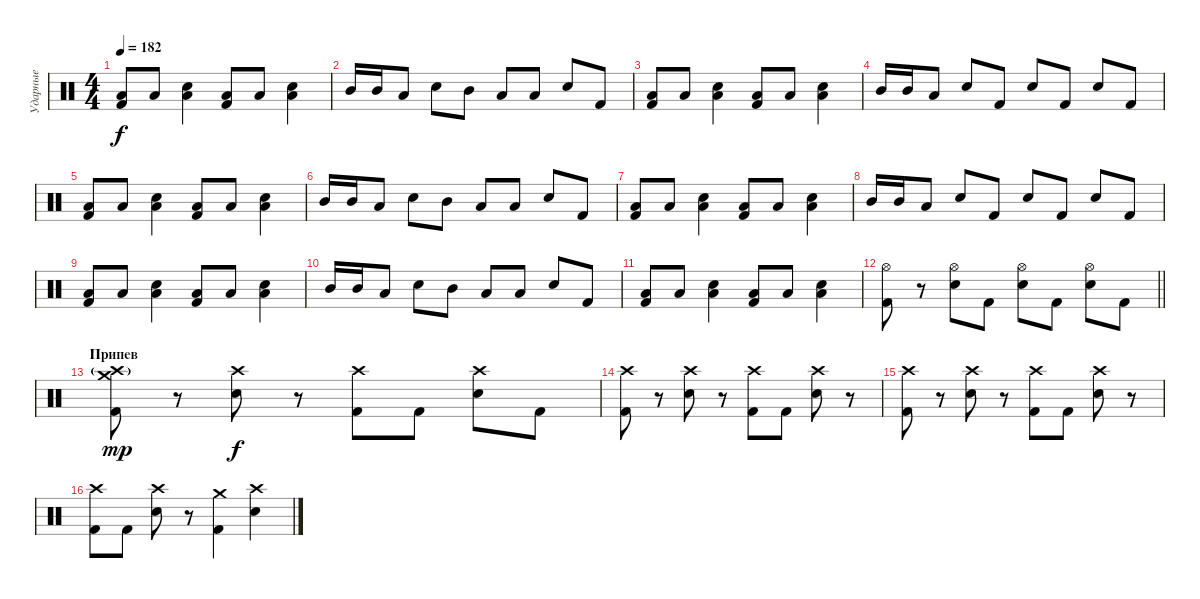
\track ("Ударные" "Ударные") {instrument percussion}
\staff {score}
\articulation defaults
\ts (4 4)
\tempo 182
\clef neutral
\ks c
("Low Floor Tom (hit)" "Kick (hit) 2").8{dy f} "Low Tom (hit)".8 ("Low Floor Tom (hit)" "Snare (hit) 2").4 ("Low Floor Tom (hit)" "Kick (hit) 2").8 "Low Tom (hit)".8 ("Low Floor Tom (hit)" "Snare (hit) 2").4 |
"Mid Tom (hit)".16 "Mid Tom (hit)".16 "Low Tom (hit)".8 "Snare (hit) 2".8 "Mid Tom (hit)".8 "Low Tom (hit)".8 "Low Tom (hit)".8 "Snare (hit) 2".8 "Kick (hit) 2".8 |
("Low Floor Tom (hit)" "Kick (hit) 2").8 "Low Tom (hit)".8 ("Low Floor Tom (hit)" "Snare (hit) 2").4 ("Low Floor Tom (hit)" "Kick (hit) 2").8 "Low Tom (hit)".8 ("Low Floor Tom (hit)" "Snare (hit) 2").4 |
"Mid Tom (hit)".16 "Mid Tom (hit)".16 "Low Tom (hit)".8 "Snare (hit) 2".8 "Kick (hit) 2".8 "Snare (hit) 2".8 "Kick (hit) 2".8 "Snare (hit) 2".8 "Kick (hit) 2".8 |
("Low Floor Tom (hit)" "Kick (hit) 2").8 "Low Tom (hit)".8 ("Low Floor Tom (hit)" "Snare (hit) 2").4 ("Low Floor Tom (hit)" "Kick (hit) 2").8 "Low Tom (hit)".8 ("Low Floor Tom (hit)" "Snare (hit) 2").4 |
"Mid Tom (hit)".16 "Mid Tom (hit)".16 "Low Tom (hit)".8 "Snare (hit) 2".8 "Mid Tom (hit)".8 "Low Tom (hit)".8 "Low Tom (hit)".8 "Snare (hit) 2".8 "Kick (hit) 2".8 |
("Low Floor Tom (hit)" "Kick (hit) 2").8 "Low Tom (hit)".8 ("Low Floor Tom (hit)" "Snare (hit) 2").4 ("Low Floor Tom (hit)" "Kick (hit) 2").8 "Low Tom (hit)".8 ("Low Floor Tom (hit)" "Snare (hit) 2").4 |
"Mid Tom (hit)".16 "Mid Tom (hit)".16 "Low Tom (hit)".8 "Snare (hit) 2".8 "Kick (hit) 2".8 "Snare (hit) 2".8 "Kick (hit) 2".8 "Snare (hit) 2".8 "Kick (hit) 2".8 |
("Low Floor Tom (hit)" "Kick (hit) 2").8 "Low Tom (hit)".8 ("Low Floor Tom (hit)" "Snare (hit) 2").4 ("Low Floor Tom (hit)" "Kick (hit) 2").8 "Low Tom (hit)".8 ("Low Floor Tom (hit)" "Snare (hit) 2").4 |
"Mid Tom (hit)".16 "Mid Tom (hit)".16 "Low Tom (hit)".8 "Snare (hit) 2".8 "Mid Tom (hit)".8 "Low Tom (hit)".8 "Low Tom (hit)".8 "Snare (hit) 2".8 "Kick (hit) 2".8 |
("Low Floor Tom (hit)" "Kick (hit) 2").8 "Low Tom (hit)".8 ("Low Floor Tom (hit)" "Snare (hit) 2").4 ("Low Floor Tom (hit)" "Kick (hit) 2").8 "Low Tom (hit)".8 ("Low Floor Tom (hit)" "Snare (hit) 2").4 |
\barLineRight lightlight
("Hi-Hat (open)" "Kick (hit) 2").8 r.8 ("Hi-Hat (open)" "Snare (hit) 2").8 "Kick (hit) 2".8 ("Hi-Hat (open)" "Snare (hit) 2").8 "Kick (hit) 2".8 ("Hi-Hat (open)" "Snare (hit) 2").8 "Kick (hit) 2".8 |
\section ("" "Припев")
("Crash medium (hit)" "Crash high (hit)"{g} "Kick (hit) 2").8{dy mp} r.8 ("Crash high (hit)" "Snare (hit) 2").8{dy f} r.8 ("Crash high (hit)" "Kick (hit) 2").8 "Kick (hit) 2".8 ("Crash high (hit)" "Snare (hit) 2").8 "Kick (hit) 2".8 |
("Crash high (hit)" "Kick (hit) 2").8 r.8 ("Crash high (hit)" "Snare (hit) 2").8 r.8 ("Crash high (hit)" "Kick (hit) 2").8 "Kick (hit) 2".8 ("Crash high (hit)" "Snare (hit) 2").8 r.8 |
("Crash high (hit)" "Kick (hit) 2").8 r.8 ("Crash high (hit)" "Snare (hit) 2").8 r.8 ("Crash high (hit)" "Kick (hit) 2").8 "Kick (hit) 2".8 ("Crash high (hit)" "Snare (hit) 2").8 r.8 |
("Crash high (hit)" "Kick (hit) 2").8 "Kick (hit) 2".8 ("Crash high (hit)" "Snare (hit) 2").8 r.8 ("Crash medium (hit)" "Kick (hit) 2").4 ("Crash high (hit)" "Snare (hit) 2").4
